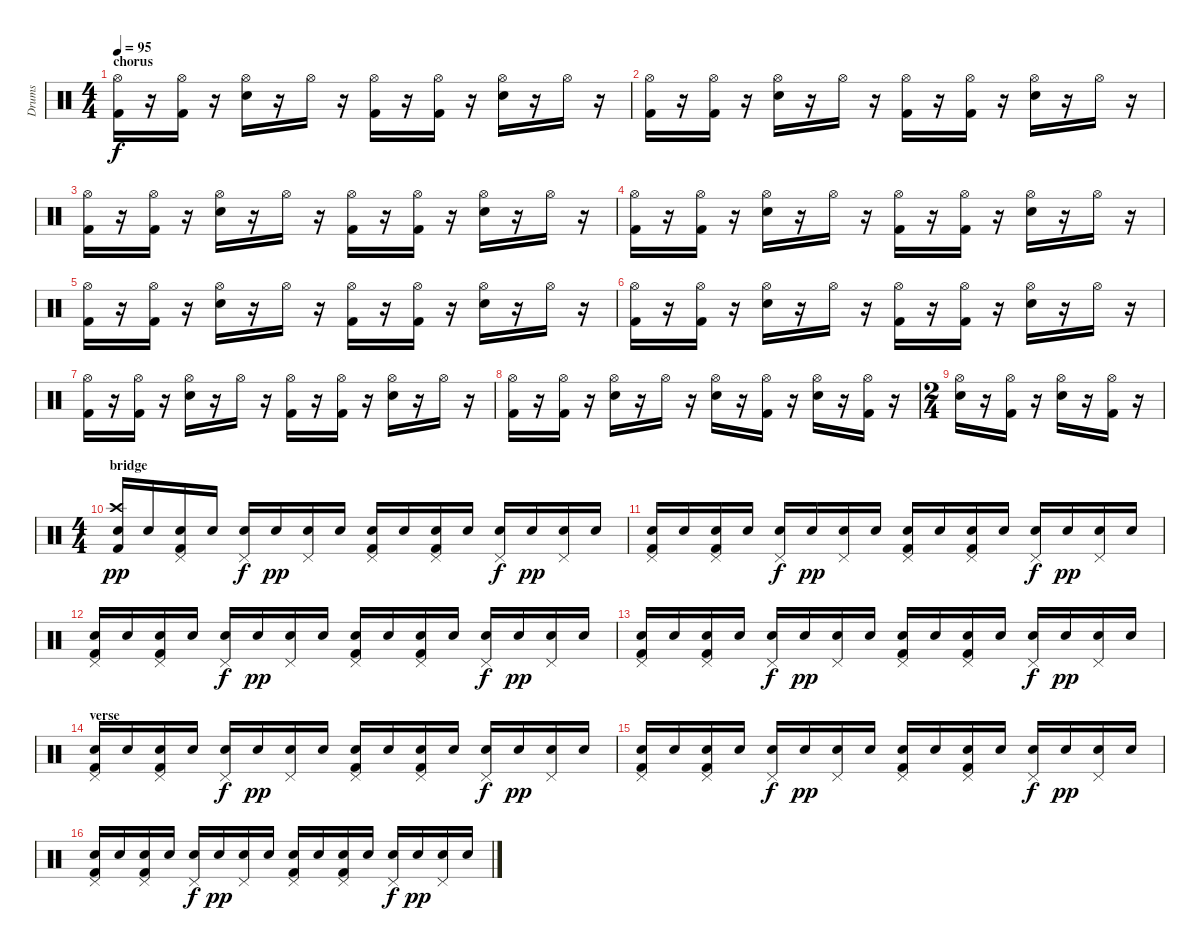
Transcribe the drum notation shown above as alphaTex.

\track ("Drums" "Drums") {instrument percussion}
\staff {score}
\articulation defaults
\ts (4 4)
\section ("" "chorus")
\tempo 95
\clef neutral
\ks c
("Hi-Hat (open)" "Kick (hit) 2").16{dy f} r.16 ("Hi-Hat (open)" "Kick (hit) 2").16 r.16 ("Hi-Hat (open)" "Electric Snare (hit)").16 r.16 "Hi-Hat (open)".16 r.16 ("Hi-Hat (open)" "Kick (hit) 2").16 r.16 ("Hi-Hat (open)" "Kick (hit) 2").16 r.16 ("Hi-Hat (open)" "Electric Snare (hit)").16 r.16 "Hi-Hat (open)".16 r.16 |
("Hi-Hat (open)" "Kick (hit) 2").16 r.16 ("Hi-Hat (open)" "Kick (hit) 2").16 r.16 ("Hi-Hat (open)" "Electric Snare (hit)").16 r.16 "Hi-Hat (open)".16 r.16 ("Hi-Hat (open)" "Kick (hit) 2").16 r.16 ("Hi-Hat (open)" "Kick (hit) 2").16 r.16 ("Hi-Hat (open)" "Electric Snare (hit)").16 r.16 "Hi-Hat (open)".16 r.16 |
("Hi-Hat (open)" "Kick (hit) 2").16 r.16 ("Hi-Hat (open)" "Kick (hit) 2").16 r.16 ("Hi-Hat (open)" "Electric Snare (hit)").16 r.16 "Hi-Hat (open)".16 r.16 ("Hi-Hat (open)" "Kick (hit) 2").16 r.16 ("Hi-Hat (open)" "Kick (hit) 2").16 r.16 ("Hi-Hat (open)" "Electric Snare (hit)").16 r.16 "Hi-Hat (open)".16 r.16 |
("Hi-Hat (open)" "Kick (hit) 2").16 r.16 ("Hi-Hat (open)" "Kick (hit) 2").16 r.16 ("Hi-Hat (open)" "Electric Snare (hit)").16 r.16 "Hi-Hat (open)".16 r.16 ("Hi-Hat (open)" "Kick (hit) 2").16 r.16 ("Hi-Hat (open)" "Kick (hit) 2").16 r.16 ("Hi-Hat (open)" "Electric Snare (hit)").16 r.16 "Hi-Hat (open)".16 r.16 |
("Hi-Hat (open)" "Kick (hit) 2").16 r.16 ("Hi-Hat (open)" "Kick (hit) 2").16 r.16 ("Hi-Hat (open)" "Electric Snare (hit)").16 r.16 "Hi-Hat (open)".16 r.16 ("Hi-Hat (open)" "Kick (hit) 2").16 r.16 ("Hi-Hat (open)" "Kick (hit) 2").16 r.16 ("Hi-Hat (open)" "Electric Snare (hit)").16 r.16 "Hi-Hat (open)".16 r.16 |
("Hi-Hat (open)" "Kick (hit) 2").16 r.16 ("Hi-Hat (open)" "Kick (hit) 2").16 r.16 ("Hi-Hat (open)" "Electric Snare (hit)").16 r.16 "Hi-Hat (open)".16 r.16 ("Hi-Hat (open)" "Kick (hit) 2").16 r.16 ("Hi-Hat (open)" "Kick (hit) 2").16 r.16 ("Hi-Hat (open)" "Electric Snare (hit)").16 r.16 "Hi-Hat (open)".16 r.16 |
("Hi-Hat (open)" "Kick (hit) 2").16 r.16 ("Hi-Hat (open)" "Kick (hit) 2").16 r.16 ("Hi-Hat (open)" "Electric Snare (hit)").16 r.16 "Hi-Hat (open)".16 r.16 ("Hi-Hat (open)" "Kick (hit) 2").16 r.16 ("Hi-Hat (open)" "Kick (hit) 2").16 r.16 ("Hi-Hat (open)" "Electric Snare (hit)").16 r.16 "Hi-Hat (open)".16 r.16 |
("Hi-Hat (open)" "Kick (hit) 2").16 r.16 ("Hi-Hat (open)" "Kick (hit) 2").16 r.16 ("Hi-Hat (open)" "Electric Snare (hit)").16 r.16 "Hi-Hat (open)".16 r.16 ("Hi-Hat (open)" "Electric Snare (hit)").16 r.16 ("Hi-Hat (open)" "Kick (hit) 2").16 r.16 ("Hi-Hat (open)" "Electric Snare (hit)").16 r.16 ("Hi-Hat (open)" "Kick (hit) 2").16 r.16 |
\ts (2 4)
("Hi-Hat (open)" "Electric Snare (hit)").16 r.16 ("Hi-Hat (open)" "Kick (hit) 2").16 r.16 ("Hi-Hat (open)" "Electric Snare (hit)").16 r.16 ("Hi-Hat (open)" "Kick (hit) 2").16 r.16 |
\ts (4 4)
\section ("" "bridge")
("Crash high (hit)" "Snare (hit) 2" "Kick (hit) 2").16{dy pp} "Snare (hit) 2".16 ("Pedal Hi-Hat (hit)" "Snare (hit) 2" "Kick (hit) 2").16 "Snare (hit) 2".16 ("Pedal Hi-Hat (hit)" "Electric Snare (hit)").16{dy f} "Snare (hit) 2".16{dy pp} ("Pedal Hi-Hat (hit)" "Snare (hit) 2").16 "Snare (hit) 2".16 ("Pedal Hi-Hat (hit)" "Snare (hit) 2" "Kick (hit) 2").16 "Snare (hit) 2".16 ("Pedal Hi-Hat (hit)" "Snare (hit) 2" "Kick (hit) 2").16 "Snare (hit) 2".16 ("Pedal Hi-Hat (hit)" "Electric Snare (hit)").16{dy f} "Snare (hit) 2".16{dy pp} ("Pedal Hi-Hat (hit)" "Snare (hit) 2").16 "Snare (hit) 2".16 |
("Pedal Hi-Hat (hit)" "Snare (hit) 2" "Kick (hit) 2").16 "Snare (hit) 2".16 ("Pedal Hi-Hat (hit)" "Snare (hit) 2" "Kick (hit) 2").16 "Snare (hit) 2".16 ("Pedal Hi-Hat (hit)" "Electric Snare (hit)").16{dy f} "Snare (hit) 2".16{dy pp} ("Pedal Hi-Hat (hit)" "Snare (hit) 2").16 "Snare (hit) 2".16 ("Pedal Hi-Hat (hit)" "Snare (hit) 2" "Kick (hit) 2").16 "Snare (hit) 2".16 ("Pedal Hi-Hat (hit)" "Snare (hit) 2" "Kick (hit) 2").16 "Snare (hit) 2".16 ("Pedal Hi-Hat (hit)" "Electric Snare (hit)").16{dy f} "Snare (hit) 2".16{dy pp} ("Pedal Hi-Hat (hit)" "Snare (hit) 2").16 "Snare (hit) 2".16 |
("Pedal Hi-Hat (hit)" "Snare (hit) 2" "Kick (hit) 2").16 "Snare (hit) 2".16 ("Pedal Hi-Hat (hit)" "Snare (hit) 2" "Kick (hit) 2").16 "Snare (hit) 2".16 ("Pedal Hi-Hat (hit)" "Electric Snare (hit)").16{dy f} "Snare (hit) 2".16{dy pp} ("Pedal Hi-Hat (hit)" "Snare (hit) 2").16 "Snare (hit) 2".16 ("Pedal Hi-Hat (hit)" "Snare (hit) 2" "Kick (hit) 2").16 "Snare (hit) 2".16 ("Pedal Hi-Hat (hit)" "Snare (hit) 2" "Kick (hit) 2").16 "Snare (hit) 2".16 ("Pedal Hi-Hat (hit)" "Electric Snare (hit)").16{dy f} "Snare (hit) 2".16{dy pp} ("Pedal Hi-Hat (hit)" "Snare (hit) 2").16 "Snare (hit) 2".16 |
("Pedal Hi-Hat (hit)" "Snare (hit) 2" "Kick (hit) 2").16 "Snare (hit) 2".16 ("Pedal Hi-Hat (hit)" "Snare (hit) 2" "Kick (hit) 2").16 "Snare (hit) 2".16 ("Pedal Hi-Hat (hit)" "Electric Snare (hit)").16{dy f} "Snare (hit) 2".16{dy pp} ("Pedal Hi-Hat (hit)" "Snare (hit) 2").16 "Snare (hit) 2".16 ("Pedal Hi-Hat (hit)" "Snare (hit) 2" "Kick (hit) 2").16 "Snare (hit) 2".16 ("Pedal Hi-Hat (hit)" "Snare (hit) 2" "Kick (hit) 2").16 "Snare (hit) 2".16 ("Pedal Hi-Hat (hit)" "Electric Snare (hit)").16{dy f} "Snare (hit) 2".16{dy pp} ("Pedal Hi-Hat (hit)" "Snare (hit) 2").16 "Snare (hit) 2".16 |
\section ("" "verse")
("Pedal Hi-Hat (hit)" "Snare (hit) 2" "Kick (hit) 2").16 "Snare (hit) 2".16 ("Pedal Hi-Hat (hit)" "Snare (hit) 2" "Kick (hit) 2").16 "Snare (hit) 2".16 ("Pedal Hi-Hat (hit)" "Electric Snare (hit)").16{dy f} "Snare (hit) 2".16{dy pp} ("Pedal Hi-Hat (hit)" "Snare (hit) 2").16 "Snare (hit) 2".16 ("Pedal Hi-Hat (hit)" "Snare (hit) 2" "Kick (hit) 2").16 "Snare (hit) 2".16 ("Pedal Hi-Hat (hit)" "Snare (hit) 2" "Kick (hit) 2").16 "Snare (hit) 2".16 ("Pedal Hi-Hat (hit)" "Electric Snare (hit)").16{dy f} "Snare (hit) 2".16{dy pp} ("Pedal Hi-Hat (hit)" "Snare (hit) 2").16 "Snare (hit) 2".16 |
("Pedal Hi-Hat (hit)" "Snare (hit) 2" "Kick (hit) 2").16 "Snare (hit) 2".16 ("Pedal Hi-Hat (hit)" "Snare (hit) 2" "Kick (hit) 2").16 "Snare (hit) 2".16 ("Pedal Hi-Hat (hit)" "Electric Snare (hit)").16{dy f} "Snare (hit) 2".16{dy pp} ("Pedal Hi-Hat (hit)" "Snare (hit) 2").16 "Snare (hit) 2".16 ("Pedal Hi-Hat (hit)" "Snare (hit) 2" "Kick (hit) 2").16 "Snare (hit) 2".16 ("Pedal Hi-Hat (hit)" "Snare (hit) 2" "Kick (hit) 2").16 "Snare (hit) 2".16 ("Pedal Hi-Hat (hit)" "Electric Snare (hit)").16{dy f} "Snare (hit) 2".16{dy pp} ("Pedal Hi-Hat (hit)" "Snare (hit) 2").16 "Snare (hit) 2".16 |
("Pedal Hi-Hat (hit)" "Snare (hit) 2" "Kick (hit) 2").16 "Snare (hit) 2".16 ("Pedal Hi-Hat (hit)" "Snare (hit) 2" "Kick (hit) 2").16 "Snare (hit) 2".16 ("Pedal Hi-Hat (hit)" "Electric Snare (hit)").16{dy f} "Snare (hit) 2".16{dy pp} ("Pedal Hi-Hat (hit)" "Snare (hit) 2").16 "Snare (hit) 2".16 ("Pedal Hi-Hat (hit)" "Snare (hit) 2" "Kick (hit) 2").16 "Snare (hit) 2".16 ("Pedal Hi-Hat (hit)" "Snare (hit) 2" "Kick (hit) 2").16 "Snare (hit) 2".16 ("Pedal Hi-Hat (hit)" "Electric Snare (hit)").16{dy f} "Snare (hit) 2".16{dy pp} ("Pedal Hi-Hat (hit)" "Snare (hit) 2").16 "Snare (hit) 2".16
